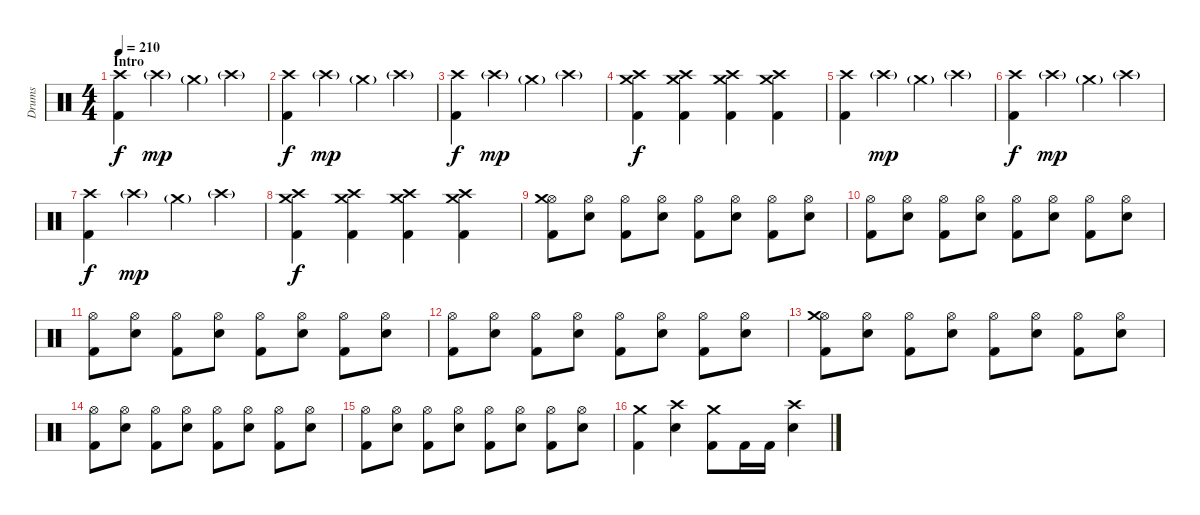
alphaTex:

\track ("Drums" "Drums") {instrument percussion}
\staff {score}
\articulation defaults
\ts (4 4)
\section ("" "Intro")
\tempo 210
\clef neutral
\ks c
("Crash high (hit)" "Kick (hit) 2").4{dy f} "Crash high (hit)"{g}.4{dy mp} "Crash medium (hit)"{g}.4 "Crash high (hit)"{g}.4 |
("Crash high (hit)" "Kick (hit) 2").4{dy f} "Crash high (hit)"{g}.4{dy mp} "Crash medium (hit)"{g}.4 "Crash high (hit)"{g}.4 |
("Crash high (hit)" "Kick (hit) 2").4{dy f} "Crash high (hit)"{g}.4{dy mp} "Crash medium (hit)"{g}.4 "Crash high (hit)"{g}.4 |
("Crash high (hit)" "Crash medium (hit)" "Kick (hit) 2").4{dy f} ("Crash medium (hit)" "Crash high (hit)" "Kick (hit) 2").4 ("Crash high (hit)" "Crash medium (hit)" "Kick (hit) 2").4 ("Crash medium (hit)" "Crash high (hit)" "Kick (hit) 2").4 |
("Crash high (hit)" "Kick (hit) 2").4 "Crash high (hit)"{g}.4{dy mp} "Crash medium (hit)"{g}.4 "Crash high (hit)"{g}.4 |
("Crash high (hit)" "Kick (hit) 2").4{dy f} "Crash high (hit)"{g}.4{dy mp} "Crash medium (hit)"{g}.4 "Crash high (hit)"{g}.4 |
("Crash high (hit)" "Kick (hit) 2").4{dy f} "Crash high (hit)"{g}.4{dy mp} "Crash medium (hit)"{g}.4 "Crash high (hit)"{g}.4 |
("Crash high (hit)" "Crash medium (hit)" "Kick (hit) 2").4{dy f} ("Crash medium (hit)" "Crash high (hit)" "Kick (hit) 2").4 ("Crash high (hit)" "Crash medium (hit)" "Kick (hit) 2").4 ("Crash medium (hit)" "Crash high (hit)" "Kick (hit) 2").4 |
("Hi-Hat (open)" "Crash medium (hit)" "Kick (hit) 2").8 ("Hi-Hat (open)" "Electric Snare (hit)").8 ("Hi-Hat (open)" "Kick (hit) 2").8 ("Hi-Hat (open)" "Electric Snare (hit)").8 ("Hi-Hat (open)" "Kick (hit) 2").8 ("Hi-Hat (open)" "Electric Snare (hit)").8 ("Hi-Hat (open)" "Kick (hit) 2").8 ("Hi-Hat (open)" "Electric Snare (hit)").8 |
("Hi-Hat (open)" "Kick (hit) 2").8 ("Hi-Hat (open)" "Electric Snare (hit)").8 ("Hi-Hat (open)" "Kick (hit) 2").8 ("Hi-Hat (open)" "Electric Snare (hit)").8 ("Hi-Hat (open)" "Kick (hit) 2").8 ("Hi-Hat (open)" "Electric Snare (hit)").8 ("Hi-Hat (open)" "Kick (hit) 2").8 ("Hi-Hat (open)" "Electric Snare (hit)").8 |
("Hi-Hat (open)" "Kick (hit) 2").8 ("Hi-Hat (open)" "Electric Snare (hit)").8 ("Hi-Hat (open)" "Kick (hit) 2").8 ("Hi-Hat (open)" "Electric Snare (hit)").8 ("Hi-Hat (open)" "Kick (hit) 2").8 ("Hi-Hat (open)" "Electric Snare (hit)").8 ("Hi-Hat (open)" "Kick (hit) 2").8 ("Hi-Hat (open)" "Electric Snare (hit)").8 |
("Hi-Hat (open)" "Kick (hit) 2").8 ("Hi-Hat (open)" "Electric Snare (hit)").8 ("Hi-Hat (open)" "Kick (hit) 2").8 ("Hi-Hat (open)" "Electric Snare (hit)").8 ("Hi-Hat (open)" "Kick (hit) 2").8 ("Hi-Hat (open)" "Electric Snare (hit)").8 ("Hi-Hat (open)" "Kick (hit) 2").8 ("Hi-Hat (open)" "Electric Snare (hit)").8 |
("Hi-Hat (open)" "Crash medium (hit)" "Kick (hit) 2").8 ("Hi-Hat (open)" "Electric Snare (hit)").8 ("Hi-Hat (open)" "Kick (hit) 2").8 ("Hi-Hat (open)" "Electric Snare (hit)").8 ("Hi-Hat (open)" "Kick (hit) 2").8 ("Hi-Hat (open)" "Electric Snare (hit)").8 ("Hi-Hat (open)" "Kick (hit) 2").8 ("Hi-Hat (open)" "Electric Snare (hit)").8 |
("Hi-Hat (open)" "Kick (hit) 2").8 ("Hi-Hat (open)" "Electric Snare (hit)").8 ("Hi-Hat (open)" "Kick (hit) 2").8 ("Hi-Hat (open)" "Electric Snare (hit)").8 ("Hi-Hat (open)" "Kick (hit) 2").8 ("Hi-Hat (open)" "Electric Snare (hit)").8 ("Hi-Hat (open)" "Kick (hit) 2").8 ("Hi-Hat (open)" "Electric Snare (hit)").8 |
("Hi-Hat (open)" "Kick (hit) 2").8 ("Hi-Hat (open)" "Electric Snare (hit)").8 ("Hi-Hat (open)" "Kick (hit) 2").8 ("Hi-Hat (open)" "Electric Snare (hit)").8 ("Hi-Hat (open)" "Kick (hit) 2").8 ("Hi-Hat (open)" "Electric Snare (hit)").8 ("Hi-Hat (open)" "Kick (hit) 2").8 ("Hi-Hat (open)" "Electric Snare (hit)").8 |
("Crash medium (hit)" "Kick (hit) 2").4 ("Crash high (hit)" "Electric Snare (hit)").4 ("Crash medium (hit)" "Kick (hit) 2").8 "Kick (hit) 2".16 "Kick (hit) 2".16 ("Crash high (hit)" "Electric Snare (hit)").4
